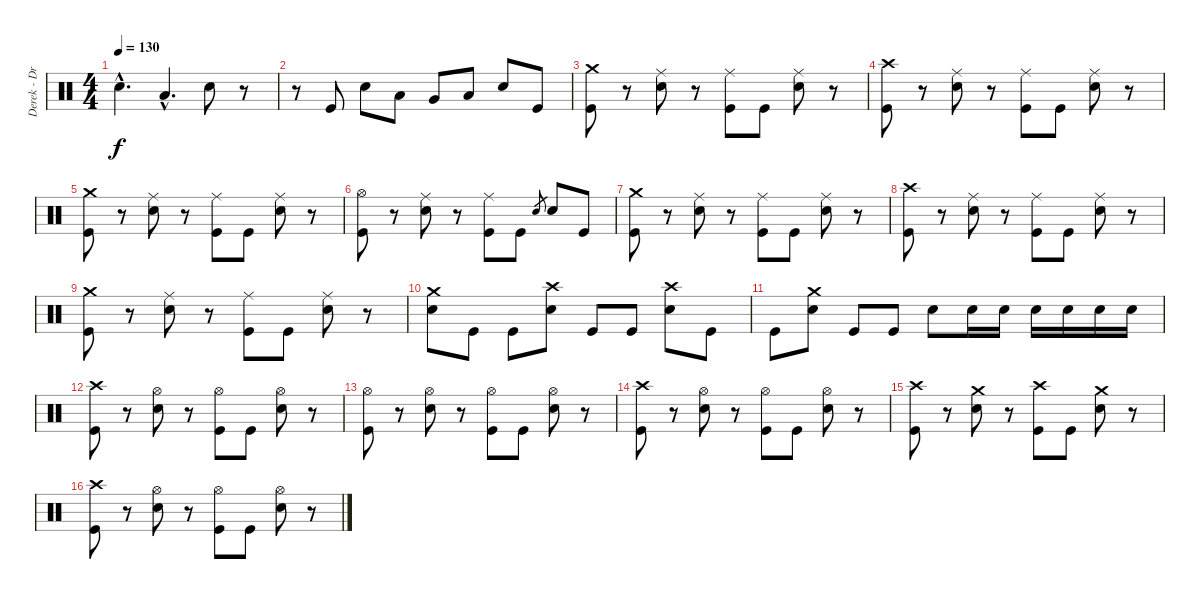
\track ("Derek - Drums" "Derek - Dr") {instrument percussion}
\staff {score}
\articulation defaults
\ts (4 4)
\tempo 130
\clef neutral
\ks c "Electric Snare (hit)"{hac}.4{d dy f} "Low Floor Tom (hit)"{hac}.4{d} "Electric Snare (hit)".8
r.8 |
r.8 "Kick (hit)".8 "Electric Snare (hit)".8 "Low Tom (hit)".8 "Very Low Tom (hit)".8 "Low Floor Tom (hit)".8 "Electric Snare (hit)".8 "Kick (hit)".8 |
("Crash medium (hit)" "Kick (hit)").8 r.8 ("Ride (middle)" "Electric Snare (hit)").8 r.8 ("Ride (middle)" "Kick (hit)").8 "Kick (hit)".8 ("Ride (middle)" "Electric Snare (hit)").8 r.8 |
("Crash high (hit)" "Kick (hit)").8 r.8 ("Ride (middle)" "Electric Snare (hit)").8 r.8 ("Ride (middle)" "Kick (hit)").8 "Kick (hit)".8 ("Ride (middle)" "Electric Snare (hit)").8 r.8 |
("Crash medium (hit)" "Kick (hit)").8 r.8 ("Ride (middle)" "Electric Snare (hit)").8 r.8 ("Ride (middle)" "Kick (hit)").8 "Kick (hit)".8 ("Ride (middle)" "Electric Snare (hit)").8 r.8 |
("Hi-Hat (open)" "Kick (hit)").8 r.8 ("Ride (middle)" "Electric Snare (hit)").8 r.8 ("Ride (middle)" "Kick (hit)").8 "Kick (hit)".8 "Electric Snare (hit)".8{gr} "Electric Snare (hit)".8 "Kick (hit)".8 |
("Crash medium (hit)" "Kick (hit)").8 r.8 ("Ride (middle)" "Electric Snare (hit)").8 r.8 ("Ride (middle)" "Kick (hit)").8 "Kick (hit)".8 ("Ride (middle)" "Electric Snare (hit)").8 r.8 |
("Crash high (hit)" "Kick (hit)").8 r.8 ("Ride (middle)" "Electric Snare (hit)").8 r.8 ("Ride (middle)" "Kick (hit)").8 "Kick (hit)".8 ("Ride (middle)" "Electric Snare (hit)").8 r.8 |
("Crash medium (hit)" "Kick (hit)").8 r.8 ("Ride (middle)" "Electric Snare (hit)").8 r.8 ("Ride (middle)" "Kick (hit)").8 "Kick (hit)".8 ("Ride (middle)" "Electric Snare (hit)").8 r.8 |
("Crash medium (hit)" "Electric Snare (hit)").8 "Kick (hit)".8 "Kick (hit)".8 ("Crash high (hit)" "Electric Snare (hit)").8 "Kick (hit)".8 "Kick (hit)".8 ("Crash high (hit)" "Electric Snare (hit)").8 "Kick (hit)".8 |
"Kick (hit)".8 ("Crash medium (hit)" "Electric Snare (hit)").8 "Kick (hit)".8 "Kick (hit)".8 "Electric Snare (hit)".8 "Electric Snare (hit)".16 "Electric Snare (hit)".16 "Electric Snare (hit)".16 "Electric Snare (hit)".16 "Electric Snare (hit)".16 "Electric Snare (hit)".16 |
("Crash high (hit)" "Kick (hit)").8 r.8 ("Hi-Hat (open)" "Electric Snare (hit)").8 r.8 ("Hi-Hat (open)" "Kick (hit)").8 "Kick (hit)".8 ("Hi-Hat (open)" "Electric Snare (hit)").8 r.8 |
("Hi-Hat (open)" "Kick (hit)").8 r.8 ("Hi-Hat (open)" "Electric Snare (hit)").8 r.8 ("Hi-Hat (open)" "Kick (hit)").8 "Kick (hit)".8 ("Hi-Hat (open)" "Electric Snare (hit)").8 r.8 |
("Crash high (hit)" "Kick (hit)").8 r.8 ("Hi-Hat (open)" "Electric Snare (hit)").8 r.8 ("Hi-Hat (open)" "Kick (hit)").8 "Kick (hit)".8 ("Hi-Hat (open)" "Electric Snare (hit)").8 r.8 |
("Crash high (hit)" "Kick (hit)").8 r.8 ("Crash medium (hit)" "Electric Snare (hit)").8 r.8 ("Crash high (hit)" "Kick (hit)").8 "Kick (hit)".8 ("Crash medium (hit)" "Electric Snare (hit)").8 r.8 |
("Crash high (hit)" "Kick (hit)").8 r.8 ("Hi-Hat (open)" "Electric Snare (hit)").8 r.8 ("Hi-Hat (open)" "Kick (hit)").8 "Kick (hit)".8 ("Hi-Hat (open)" "Electric Snare (hit)").8 r.8
